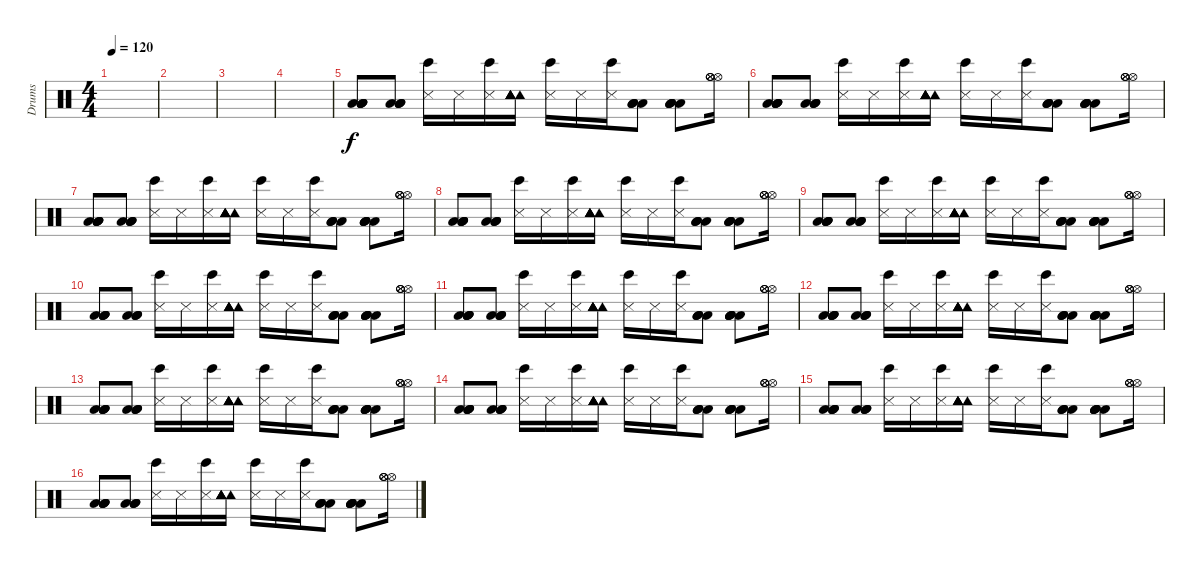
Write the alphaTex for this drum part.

\track ("Drums" "Drums") {instrument percussion}
\staff {score}
\articulation defaults
\ts (4 4)
\tempo 120
\clef neutral
\ks c
|
|
|
|
("Low Floor Tom (hit)" "Low Floor Tom (hit)" "Low Floor Tom (hit)" "Low Floor Tom (hit)" "Low Floor Tom (hit)").8 ("Low Floor Tom (hit)" "Low Floor Tom (hit)" "Low Floor Tom (hit)" "Low Floor Tom (hit)").8 ("Bongo High (hit)" "Snare (side stick) 3").16 "Snare (side stick) 3".16 ("Bongo High (hit)" "Snare (side stick) 3").16 ("Tambourine (hit)" "Tambourine (hit)" "Tambourine (hit)" "Tambourine (hit)" "Tambourine (hit)" "Tambourine (hit)").16 ("Bongo High (hit)" "Snare (side stick) 3").16 "Snare (side stick) 3".16 ("Bongo High (hit)" "Snare (side stick) 3").16 ("Low Floor Tom (hit)" "Low Floor Tom (hit)" "Low Floor Tom (hit)" "Low Floor Tom (hit)").8 ("Low Floor Tom (hit)" "Low Floor Tom (hit)" "Low Floor Tom (hit)" "Low Floor Tom (hit)" "Low Floor Tom (hit)").8 ("Hi-Hat (open)" "Hi-Hat (open)" "Hi-Hat (open)" "Hi-Hat (open)").16 |
("Low Floor Tom (hit)" "Low Floor Tom (hit)" "Low Floor Tom (hit)" "Low Floor Tom (hit)" "Low Floor Tom (hit)").8 ("Low Floor Tom (hit)" "Low Floor Tom (hit)" "Low Floor Tom (hit)" "Low Floor Tom (hit)").8 ("Bongo High (hit)" "Snare (side stick) 3").16 "Snare (side stick) 3".16 ("Bongo High (hit)" "Snare (side stick) 3").16 ("Tambourine (hit)" "Tambourine (hit)" "Tambourine (hit)" "Tambourine (hit)" "Tambourine (hit)" "Tambourine (hit)").16 ("Bongo High (hit)" "Snare (side stick) 3").16 "Snare (side stick) 3".16 ("Bongo High (hit)" "Snare (side stick) 3").16 ("Low Floor Tom (hit)" "Low Floor Tom (hit)" "Low Floor Tom (hit)" "Low Floor Tom (hit)").8 ("Low Floor Tom (hit)" "Low Floor Tom (hit)" "Low Floor Tom (hit)" "Low Floor Tom (hit)" "Low Floor Tom (hit)").8 ("Hi-Hat (open)" "Hi-Hat (open)" "Hi-Hat (open)" "Hi-Hat (open)").16 |
("Low Floor Tom (hit)" "Low Floor Tom (hit)" "Low Floor Tom (hit)" "Low Floor Tom (hit)" "Low Floor Tom (hit)").8 ("Low Floor Tom (hit)" "Low Floor Tom (hit)" "Low Floor Tom (hit)" "Low Floor Tom (hit)").8 ("Bongo High (hit)" "Snare (side stick) 3").16 "Snare (side stick) 3".16 ("Bongo High (hit)" "Snare (side stick) 3").16 ("Tambourine (hit)" "Tambourine (hit)" "Tambourine (hit)" "Tambourine (hit)" "Tambourine (hit)" "Tambourine (hit)").16 ("Bongo High (hit)" "Snare (side stick) 3").16 "Snare (side stick) 3".16 ("Bongo High (hit)" "Snare (side stick) 3").16 ("Low Floor Tom (hit)" "Low Floor Tom (hit)" "Low Floor Tom (hit)" "Low Floor Tom (hit)").8 ("Low Floor Tom (hit)" "Low Floor Tom (hit)" "Low Floor Tom (hit)" "Low Floor Tom (hit)" "Low Floor Tom (hit)").8 ("Hi-Hat (open)" "Hi-Hat (open)" "Hi-Hat (open)" "Hi-Hat (open)").16 |
("Low Floor Tom (hit)" "Low Floor Tom (hit)" "Low Floor Tom (hit)" "Low Floor Tom (hit)" "Low Floor Tom (hit)").8 ("Low Floor Tom (hit)" "Low Floor Tom (hit)" "Low Floor Tom (hit)" "Low Floor Tom (hit)").8 ("Bongo High (hit)" "Snare (side stick) 3").16 "Snare (side stick) 3".16 ("Bongo High (hit)" "Snare (side stick) 3").16 ("Tambourine (hit)" "Tambourine (hit)" "Tambourine (hit)" "Tambourine (hit)" "Tambourine (hit)" "Tambourine (hit)").16 ("Bongo High (hit)" "Snare (side stick) 3").16 "Snare (side stick) 3".16 ("Bongo High (hit)" "Snare (side stick) 3").16 ("Low Floor Tom (hit)" "Low Floor Tom (hit)" "Low Floor Tom (hit)" "Low Floor Tom (hit)").8 ("Low Floor Tom (hit)" "Low Floor Tom (hit)" "Low Floor Tom (hit)" "Low Floor Tom (hit)" "Low Floor Tom (hit)").8 ("Hi-Hat (open)" "Hi-Hat (open)" "Hi-Hat (open)" "Hi-Hat (open)").16 |
("Low Floor Tom (hit)" "Low Floor Tom (hit)" "Low Floor Tom (hit)" "Low Floor Tom (hit)" "Low Floor Tom (hit)").8 ("Low Floor Tom (hit)" "Low Floor Tom (hit)" "Low Floor Tom (hit)" "Low Floor Tom (hit)").8 ("Bongo High (hit)" "Snare (side stick) 3").16 "Snare (side stick) 3".16 ("Bongo High (hit)" "Snare (side stick) 3").16 ("Tambourine (hit)" "Tambourine (hit)" "Tambourine (hit)" "Tambourine (hit)" "Tambourine (hit)" "Tambourine (hit)").16 ("Bongo High (hit)" "Snare (side stick) 3").16 "Snare (side stick) 3".16 ("Bongo High (hit)" "Snare (side stick) 3").16 ("Low Floor Tom (hit)" "Low Floor Tom (hit)" "Low Floor Tom (hit)" "Low Floor Tom (hit)").8 ("Low Floor Tom (hit)" "Low Floor Tom (hit)" "Low Floor Tom (hit)" "Low Floor Tom (hit)" "Low Floor Tom (hit)").8 ("Hi-Hat (open)" "Hi-Hat (open)" "Hi-Hat (open)" "Hi-Hat (open)").16 |
("Low Floor Tom (hit)" "Low Floor Tom (hit)" "Low Floor Tom (hit)" "Low Floor Tom (hit)" "Low Floor Tom (hit)").8 ("Low Floor Tom (hit)" "Low Floor Tom (hit)" "Low Floor Tom (hit)" "Low Floor Tom (hit)").8 ("Bongo High (hit)" "Snare (side stick) 3").16 "Snare (side stick) 3".16 ("Bongo High (hit)" "Snare (side stick) 3").16 ("Tambourine (hit)" "Tambourine (hit)" "Tambourine (hit)" "Tambourine (hit)" "Tambourine (hit)" "Tambourine (hit)").16 ("Bongo High (hit)" "Snare (side stick) 3").16 "Snare (side stick) 3".16 ("Bongo High (hit)" "Snare (side stick) 3").16 ("Low Floor Tom (hit)" "Low Floor Tom (hit)" "Low Floor Tom (hit)" "Low Floor Tom (hit)").8 ("Low Floor Tom (hit)" "Low Floor Tom (hit)" "Low Floor Tom (hit)" "Low Floor Tom (hit)" "Low Floor Tom (hit)").8 ("Hi-Hat (open)" "Hi-Hat (open)" "Hi-Hat (open)" "Hi-Hat (open)").16 |
("Low Floor Tom (hit)" "Low Floor Tom (hit)" "Low Floor Tom (hit)" "Low Floor Tom (hit)" "Low Floor Tom (hit)").8 ("Low Floor Tom (hit)" "Low Floor Tom (hit)" "Low Floor Tom (hit)" "Low Floor Tom (hit)").8 ("Bongo High (hit)" "Snare (side stick) 3").16 "Snare (side stick) 3".16 ("Bongo High (hit)" "Snare (side stick) 3").16 ("Tambourine (hit)" "Tambourine (hit)" "Tambourine (hit)" "Tambourine (hit)" "Tambourine (hit)" "Tambourine (hit)").16 ("Bongo High (hit)" "Snare (side stick) 3").16 "Snare (side stick) 3".16 ("Bongo High (hit)" "Snare (side stick) 3").16 ("Low Floor Tom (hit)" "Low Floor Tom (hit)" "Low Floor Tom (hit)" "Low Floor Tom (hit)").8 ("Low Floor Tom (hit)" "Low Floor Tom (hit)" "Low Floor Tom (hit)" "Low Floor Tom (hit)" "Low Floor Tom (hit)").8 ("Hi-Hat (open)" "Hi-Hat (open)" "Hi-Hat (open)" "Hi-Hat (open)").16 |
("Low Floor Tom (hit)" "Low Floor Tom (hit)" "Low Floor Tom (hit)" "Low Floor Tom (hit)" "Low Floor Tom (hit)").8 ("Low Floor Tom (hit)" "Low Floor Tom (hit)" "Low Floor Tom (hit)" "Low Floor Tom (hit)").8 ("Bongo High (hit)" "Snare (side stick) 3").16 "Snare (side stick) 3".16 ("Bongo High (hit)" "Snare (side stick) 3").16 ("Tambourine (hit)" "Tambourine (hit)" "Tambourine (hit)" "Tambourine (hit)" "Tambourine (hit)" "Tambourine (hit)").16 ("Bongo High (hit)" "Snare (side stick) 3").16 "Snare (side stick) 3".16 ("Bongo High (hit)" "Snare (side stick) 3").16 ("Low Floor Tom (hit)" "Low Floor Tom (hit)" "Low Floor Tom (hit)" "Low Floor Tom (hit)").8 ("Low Floor Tom (hit)" "Low Floor Tom (hit)" "Low Floor Tom (hit)" "Low Floor Tom (hit)" "Low Floor Tom (hit)").8 ("Hi-Hat (open)" "Hi-Hat (open)" "Hi-Hat (open)" "Hi-Hat (open)").16 |
("Low Floor Tom (hit)" "Low Floor Tom (hit)" "Low Floor Tom (hit)" "Low Floor Tom (hit)" "Low Floor Tom (hit)").8 ("Low Floor Tom (hit)" "Low Floor Tom (hit)" "Low Floor Tom (hit)" "Low Floor Tom (hit)").8 ("Bongo High (hit)" "Snare (side stick) 3").16 "Snare (side stick) 3".16 ("Bongo High (hit)" "Snare (side stick) 3").16 ("Tambourine (hit)" "Tambourine (hit)" "Tambourine (hit)" "Tambourine (hit)" "Tambourine (hit)" "Tambourine (hit)").16 ("Bongo High (hit)" "Snare (side stick) 3").16 "Snare (side stick) 3".16 ("Bongo High (hit)" "Snare (side stick) 3").16 ("Low Floor Tom (hit)" "Low Floor Tom (hit)" "Low Floor Tom (hit)" "Low Floor Tom (hit)").8 ("Low Floor Tom (hit)" "Low Floor Tom (hit)" "Low Floor Tom (hit)" "Low Floor Tom (hit)" "Low Floor Tom (hit)").8 ("Hi-Hat (open)" "Hi-Hat (open)" "Hi-Hat (open)" "Hi-Hat (open)").16 |
("Low Floor Tom (hit)" "Low Floor Tom (hit)" "Low Floor Tom (hit)" "Low Floor Tom (hit)" "Low Floor Tom (hit)").8 ("Low Floor Tom (hit)" "Low Floor Tom (hit)" "Low Floor Tom (hit)" "Low Floor Tom (hit)").8 ("Bongo High (hit)" "Snare (side stick) 3").16 "Snare (side stick) 3".16 ("Bongo High (hit)" "Snare (side stick) 3").16 ("Tambourine (hit)" "Tambourine (hit)" "Tambourine (hit)" "Tambourine (hit)" "Tambourine (hit)" "Tambourine (hit)").16 ("Bongo High (hit)" "Snare (side stick) 3").16 "Snare (side stick) 3".16 ("Bongo High (hit)" "Snare (side stick) 3").16 ("Low Floor Tom (hit)" "Low Floor Tom (hit)" "Low Floor Tom (hit)" "Low Floor Tom (hit)").8 ("Low Floor Tom (hit)" "Low Floor Tom (hit)" "Low Floor Tom (hit)" "Low Floor Tom (hit)" "Low Floor Tom (hit)").8 ("Hi-Hat (open)" "Hi-Hat (open)" "Hi-Hat (open)" "Hi-Hat (open)").16 |
("Low Floor Tom (hit)" "Low Floor Tom (hit)" "Low Floor Tom (hit)" "Low Floor Tom (hit)" "Low Floor Tom (hit)").8 ("Low Floor Tom (hit)" "Low Floor Tom (hit)" "Low Floor Tom (hit)" "Low Floor Tom (hit)").8 ("Bongo High (hit)" "Snare (side stick) 3").16 "Snare (side stick) 3".16 ("Bongo High (hit)" "Snare (side stick) 3").16 ("Tambourine (hit)" "Tambourine (hit)" "Tambourine (hit)" "Tambourine (hit)" "Tambourine (hit)" "Tambourine (hit)").16 ("Bongo High (hit)" "Snare (side stick) 3").16 "Snare (side stick) 3".16 ("Bongo High (hit)" "Snare (side stick) 3").16 ("Low Floor Tom (hit)" "Low Floor Tom (hit)" "Low Floor Tom (hit)" "Low Floor Tom (hit)").8 ("Low Floor Tom (hit)" "Low Floor Tom (hit)" "Low Floor Tom (hit)" "Low Floor Tom (hit)" "Low Floor Tom (hit)").8 ("Hi-Hat (open)" "Hi-Hat (open)" "Hi-Hat (open)" "Hi-Hat (open)").16 |
("Low Floor Tom (hit)" "Low Floor Tom (hit)" "Low Floor Tom (hit)" "Low Floor Tom (hit)" "Low Floor Tom (hit)").8 ("Low Floor Tom (hit)" "Low Floor Tom (hit)" "Low Floor Tom (hit)" "Low Floor Tom (hit)").8 ("Bongo High (hit)" "Snare (side stick) 3").16 "Snare (side stick) 3".16 ("Bongo High (hit)" "Snare (side stick) 3").16 ("Tambourine (hit)" "Tambourine (hit)" "Tambourine (hit)" "Tambourine (hit)" "Tambourine (hit)" "Tambourine (hit)").16 ("Bongo High (hit)" "Snare (side stick) 3").16 "Snare (side stick) 3".16 ("Bongo High (hit)" "Snare (side stick) 3").16 ("Low Floor Tom (hit)" "Low Floor Tom (hit)" "Low Floor Tom (hit)" "Low Floor Tom (hit)").8 ("Low Floor Tom (hit)" "Low Floor Tom (hit)" "Low Floor Tom (hit)" "Low Floor Tom (hit)" "Low Floor Tom (hit)").8 ("Hi-Hat (open)" "Hi-Hat (open)" "Hi-Hat (open)" "Hi-Hat (open)").16
